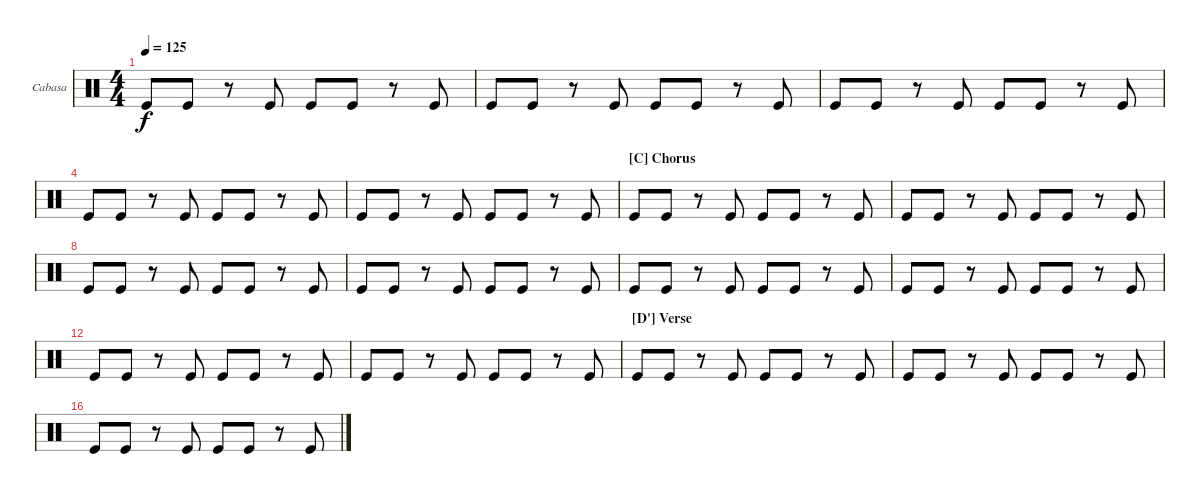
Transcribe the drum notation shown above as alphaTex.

\bracketExtendMode nobrackets
\firstSystemTrackNameOrientation horizontal
\otherSystemsTrackNameOrientation horizontal
\defaultBarNumberDisplay FirstOfSystem
\track ("Cabasa" "Cabasa") {instrument percussion}
\staff {score}
\articulation defaults
\ts (4 4)
\tempo 125
\clef neutral
\ks c "Kick (hit)".8{dy f} "Kick (hit)".8
r.8 "Kick (hit)".8 "Kick (hit)".8 "Kick (hit)".8 r.8 "Kick (hit)".8 |
"Kick (hit)".8 "Kick (hit)".8 r.8 "Kick (hit)".8 "Kick (hit)".8 "Kick (hit)".8 r.8 "Kick (hit)".8 |
"Kick (hit)".8 "Kick (hit)".8 r.8 "Kick (hit)".8 "Kick (hit)".8 "Kick (hit)".8 r.8 "Kick (hit)".8 |
"Kick (hit)".8 "Kick (hit)".8 r.8 "Kick (hit)".8 "Kick (hit)".8 "Kick (hit)".8 r.8 "Kick (hit)".8 |
"Kick (hit)".8 "Kick (hit)".8 r.8 "Kick (hit)".8 "Kick (hit)".8 "Kick (hit)".8 r.8 "Kick (hit)".8 |
\section ("C" "Chorus")
"Kick (hit)".8 "Kick (hit)".8 r.8 "Kick (hit)".8 "Kick (hit)".8 "Kick (hit)".8 r.8 "Kick (hit)".8 |
"Kick (hit)".8 "Kick (hit)".8 r.8 "Kick (hit)".8 "Kick (hit)".8 "Kick (hit)".8 r.8 "Kick (hit)".8 |
"Kick (hit)".8 "Kick (hit)".8 r.8 "Kick (hit)".8 "Kick (hit)".8 "Kick (hit)".8 r.8 "Kick (hit)".8 |
"Kick (hit)".8 "Kick (hit)".8 r.8 "Kick (hit)".8 "Kick (hit)".8 "Kick (hit)".8 r.8 "Kick (hit)".8 |
"Kick (hit)".8 "Kick (hit)".8 r.8 "Kick (hit)".8 "Kick (hit)".8 "Kick (hit)".8 r.8 "Kick (hit)".8 |
"Kick (hit)".8 "Kick (hit)".8 r.8 "Kick (hit)".8 "Kick (hit)".8 "Kick (hit)".8 r.8 "Kick (hit)".8 |
"Kick (hit)".8 "Kick (hit)".8 r.8 "Kick (hit)".8 "Kick (hit)".8 "Kick (hit)".8 r.8 "Kick (hit)".8 |
"Kick (hit)".8 "Kick (hit)".8 r.8 "Kick (hit)".8 "Kick (hit)".8 "Kick (hit)".8 r.8 "Kick (hit)".8 |
\section ("D'" "Verse")
"Kick (hit)".8 "Kick (hit)".8 r.8 "Kick (hit)".8 "Kick (hit)".8 "Kick (hit)".8 r.8 "Kick (hit)".8 |
"Kick (hit)".8 "Kick (hit)".8 r.8 "Kick (hit)".8 "Kick (hit)".8 "Kick (hit)".8 r.8 "Kick (hit)".8 |
"Kick (hit)".8 "Kick (hit)".8 r.8 "Kick (hit)".8 "Kick (hit)".8 "Kick (hit)".8 r.8 "Kick (hit)".8
